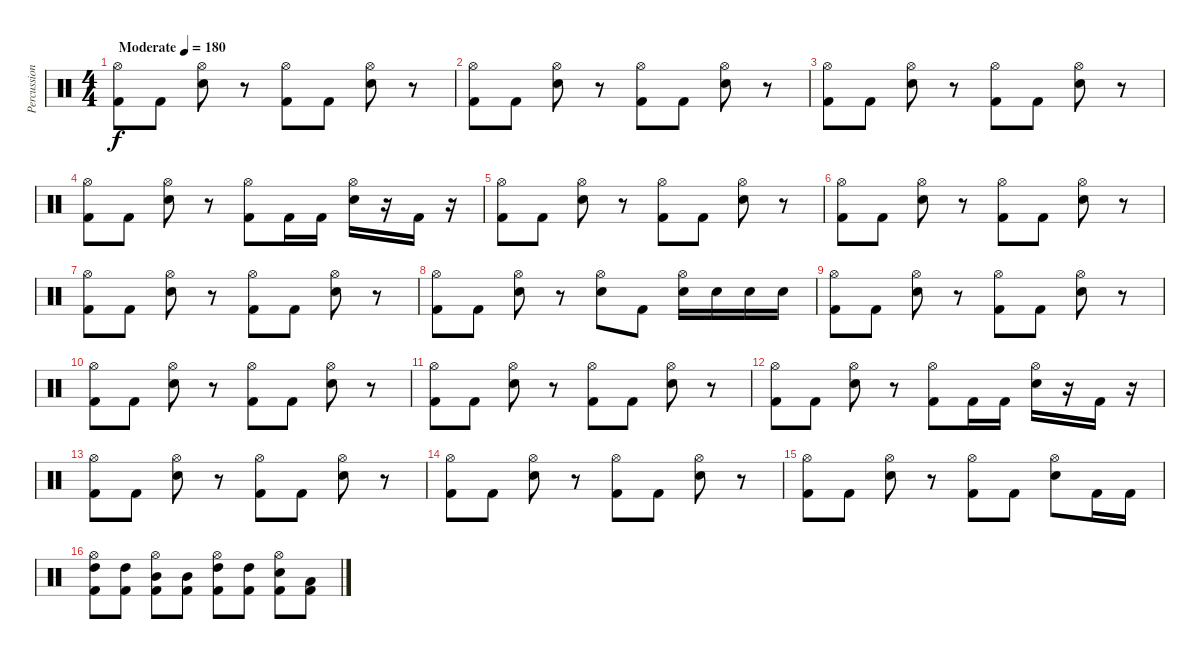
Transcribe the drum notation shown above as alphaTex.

\track ("Percussion" "Percussion") {instrument percussion}
\staff {score}
\articulation defaults
\ts (4 4)
\tempo (180 "Moderate")
\clef neutral
\ks c
("Hi-Hat (open)" "Kick (hit) 2").8{dy f} "Kick (hit) 2".8 ("Hi-Hat (open)" "Snare (hit) 2").8 r.8 ("Hi-Hat (open)" "Kick (hit) 2").8 "Kick (hit) 2".8 ("Hi-Hat (open)" "Snare (hit) 2").8 r.8 |
("Hi-Hat (open)" "Kick (hit) 2").8 "Kick (hit) 2".8 ("Hi-Hat (open)" "Snare (hit) 2").8 r.8 ("Hi-Hat (open)" "Kick (hit) 2").8 "Kick (hit) 2".8 ("Hi-Hat (open)" "Snare (hit) 2").8 r.8 |
("Hi-Hat (open)" "Kick (hit) 2").8 "Kick (hit) 2".8 ("Hi-Hat (open)" "Snare (hit) 2").8 r.8 ("Hi-Hat (open)" "Kick (hit) 2").8 "Kick (hit) 2".8 ("Hi-Hat (open)" "Snare (hit) 2").8 r.8 |
("Hi-Hat (open)" "Kick (hit) 2").8 "Kick (hit) 2".8 ("Hi-Hat (open)" "Snare (hit) 2").8 r.8 ("Hi-Hat (open)" "Kick (hit) 2").8 "Kick (hit) 2".16 "Kick (hit) 2".16 ("Hi-Hat (open)" "Snare (hit) 2").16 r.16 "Kick (hit) 2".16 r.16 |
("Hi-Hat (open)" "Kick (hit) 2").8 "Kick (hit) 2".8 ("Hi-Hat (open)" "Snare (hit) 2").8 r.8 ("Hi-Hat (open)" "Kick (hit) 2").8 "Kick (hit) 2".8 ("Hi-Hat (open)" "Snare (hit) 2").8 r.8 |
("Hi-Hat (open)" "Kick (hit) 2").8 "Kick (hit) 2".8 ("Hi-Hat (open)" "Snare (hit) 2").8 r.8 ("Hi-Hat (open)" "Kick (hit) 2").8 "Kick (hit) 2".8 ("Hi-Hat (open)" "Snare (hit) 2").8 r.8 |
("Hi-Hat (open)" "Kick (hit) 2").8 "Kick (hit) 2".8 ("Hi-Hat (open)" "Snare (hit) 2").8 r.8 ("Hi-Hat (open)" "Kick (hit) 2").8 "Kick (hit) 2".8 ("Hi-Hat (open)" "Snare (hit) 2").8 r.8 |
("Hi-Hat (open)" "Kick (hit) 2").8 "Kick (hit) 2".8 ("Hi-Hat (open)" "Snare (hit) 2").8 r.8 ("Hi-Hat (open)" "Snare (hit) 2").8 "Kick (hit) 2".8 ("Hi-Hat (open)" "Snare (hit) 2").16 "Snare (hit) 2".16 "Snare (hit) 2".16 "Snare (hit) 2".16 |
("Hi-Hat (open)" "Kick (hit) 2").8 "Kick (hit) 2".8 ("Hi-Hat (open)" "Snare (hit) 2").8 r.8 ("Hi-Hat (open)" "Kick (hit) 2").8 "Kick (hit) 2".8 ("Hi-Hat (open)" "Snare (hit) 2").8 r.8 |
("Hi-Hat (open)" "Kick (hit) 2").8 "Kick (hit) 2".8 ("Hi-Hat (open)" "Snare (hit) 2").8 r.8 ("Hi-Hat (open)" "Kick (hit) 2").8 "Kick (hit) 2".8 ("Hi-Hat (open)" "Snare (hit) 2").8 r.8 |
("Hi-Hat (open)" "Kick (hit) 2").8 "Kick (hit) 2".8 ("Hi-Hat (open)" "Snare (hit) 2").8 r.8 ("Hi-Hat (open)" "Kick (hit) 2").8 "Kick (hit) 2".8 ("Hi-Hat (open)" "Snare (hit) 2").8 r.8 |
("Hi-Hat (open)" "Kick (hit) 2").8 "Kick (hit) 2".8 ("Hi-Hat (open)" "Snare (hit) 2").8 r.8 ("Hi-Hat (open)" "Kick (hit) 2").8 "Kick (hit) 2".16 "Kick (hit) 2".16 ("Hi-Hat (open)" "Snare (hit) 2").16 r.16 "Kick (hit) 2".16 r.16 |
("Hi-Hat (open)" "Kick (hit) 2").8 "Kick (hit) 2".8 ("Hi-Hat (open)" "Snare (hit) 2").8 r.8 ("Hi-Hat (open)" "Kick (hit) 2").8 "Kick (hit) 2".8 ("Hi-Hat (open)" "Snare (hit) 2").8 r.8 |
("Hi-Hat (open)" "Kick (hit) 2").8 "Kick (hit) 2".8 ("Hi-Hat (open)" "Snare (hit) 2").8 r.8 ("Hi-Hat (open)" "Kick (hit) 2").8 "Kick (hit) 2".8 ("Hi-Hat (open)" "Snare (hit) 2").8 r.8 |
("Hi-Hat (open)" "Kick (hit) 2").8 "Kick (hit) 2".8 ("Hi-Hat (open)" "Snare (hit) 2").8 r.8 ("Hi-Hat (open)" "Kick (hit) 2").8 "Kick (hit) 2".8 ("Hi-Hat (open)" "Snare (hit) 2").8 "Kick (hit) 2".16 "Kick (hit) 2".16 |
("Hi-Hat (open)" "High Tom (hit)" "Kick (hit) 2").8 ("High Tom (hit)" "Kick (hit) 2").8 ("Hi-Hat (open)" "Mid Tom (hit)" "Kick (hit) 2").8 ("Mid Tom (hit)" "Kick (hit) 2").8 ("Hi-Hat (open)" "High Tom (hit)" "Kick (hit) 2").8 ("High Tom (hit)" "Kick (hit) 2").8 ("Hi-Hat (open)" "Snare (hit) 2" "Kick (hit) 2").8 ("Low Tom (hit)" "Kick (hit) 2").8
